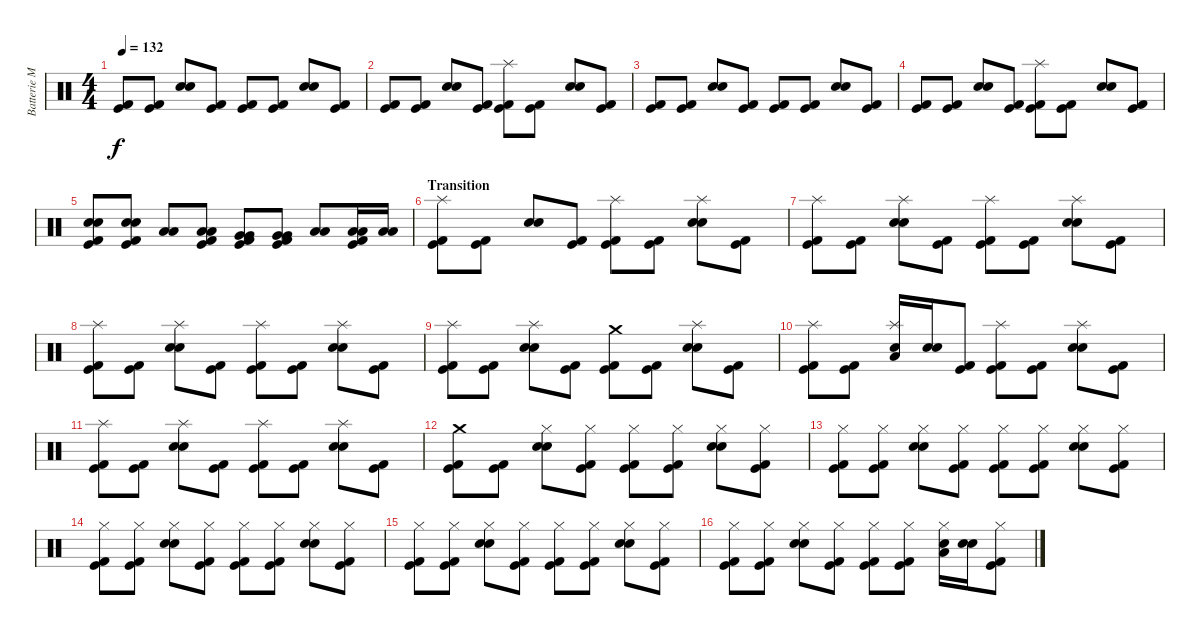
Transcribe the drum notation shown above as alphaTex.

\track ("Batterie Mat" "Batterie M") {instrument percussion}
\staff {score}
\articulation defaults
\ts (4 4)
\tempo 132
\clef neutral
\ks c
("Kick (hit) 2" "Kick (hit)").8{dy f} ("Kick (hit) 2" "Kick (hit)").8 ("Electric Snare (hit)" "Electric Snare (hit)").8 ("Kick (hit) 2" "Kick (hit)").8 ("Kick (hit) 2" "Kick (hit)").8 ("Kick (hit) 2" "Kick (hit)").8 ("Electric Snare (hit)" "Electric Snare (hit)").8 ("Kick (hit) 2" "Kick (hit)").8 |
("Kick (hit) 2" "Kick (hit)").8 ("Kick (hit) 2" "Kick (hit)").8 ("Electric Snare (hit)" "Electric Snare (hit)").8 ("Kick (hit) 2" "Kick (hit)").8 ("Splash (hit)" "Kick (hit) 2" "Kick (hit)").8 ("Kick (hit) 2" "Kick (hit)").8 ("Electric Snare (hit)" "Electric Snare (hit)").8 ("Kick (hit) 2" "Kick (hit)").8 |
("Kick (hit) 2" "Kick (hit)").8 ("Kick (hit) 2" "Kick (hit)").8 ("Electric Snare (hit)" "Electric Snare (hit)").8 ("Kick (hit) 2" "Kick (hit)").8 ("Kick (hit) 2" "Kick (hit)").8 ("Kick (hit) 2" "Kick (hit)").8 ("Electric Snare (hit)" "Electric Snare (hit)").8 ("Kick (hit) 2" "Kick (hit)").8 |
("Kick (hit) 2" "Kick (hit)").8 ("Kick (hit) 2" "Kick (hit)").8 ("Electric Snare (hit)" "Electric Snare (hit)").8 ("Kick (hit) 2" "Kick (hit)").8 ("Splash (hit)" "Kick (hit) 2" "Kick (hit)").8 ("Kick (hit) 2" "Kick (hit)").8 ("Electric Snare (hit)" "Electric Snare (hit)").8 ("Kick (hit) 2" "Kick (hit)").8 |
("Electric Snare (hit)" "Electric Snare (hit)" "Kick (hit) 2" "Kick (hit)").8 ("Electric Snare (hit)" "Electric Snare (hit)" "Kick (hit) 2" "Kick (hit)").8 ("Low Tom (hit)" "Low Tom (hit)").8 ("Low Tom (hit)" "Low Tom (hit)" "Kick (hit) 2" "Kick (hit)").8 ("Very Low Tom (hit)" "Very Low Tom (hit)" "Kick (hit) 2" "Kick (hit)").8 ("Very Low Tom (hit)" "Very Low Tom (hit)" "Kick (hit) 2" "Kick (hit)").8 ("Low Floor Tom (hit)" "Low Floor Tom (hit)").8 ("Low Floor Tom (hit)" "Low Floor Tom (hit)" "Kick (hit) 2" "Kick (hit)").16 ("Low Floor Tom (hit)" "Low Floor Tom (hit)").16 |
\section ("" "Transition")
("Splash (hit)" "Kick (hit) 2" "Kick (hit)").8 ("Kick (hit) 2" "Kick (hit)").8 ("Electric Snare (hit)" "Electric Snare (hit)").8 ("Kick (hit) 2" "Kick (hit)").8 ("Splash (hit)" "Kick (hit) 2" "Kick (hit)").8 ("Kick (hit) 2" "Kick (hit)").8 ("Splash (hit)" "Electric Snare (hit)" "Electric Snare (hit)").8 ("Kick (hit) 2" "Kick (hit)").8 |
("Splash (hit)" "Kick (hit) 2" "Kick (hit)").8 ("Kick (hit) 2" "Kick (hit)").8 ("Splash (hit)" "Electric Snare (hit)" "Electric Snare (hit)").8 ("Kick (hit) 2" "Kick (hit)").8 ("Splash (hit)" "Kick (hit) 2" "Kick (hit)").8 ("Kick (hit) 2" "Kick (hit)").8 ("Splash (hit)" "Electric Snare (hit)" "Electric Snare (hit)").8 ("Kick (hit) 2" "Kick (hit)").8 |
("Splash (hit)" "Kick (hit) 2" "Kick (hit)").8 ("Kick (hit) 2" "Kick (hit)").8 ("Splash (hit)" "Electric Snare (hit)" "Electric Snare (hit)").8 ("Kick (hit) 2" "Kick (hit)").8 ("Splash (hit)" "Kick (hit) 2" "Kick (hit)").8 ("Kick (hit) 2" "Kick (hit)").8 ("Splash (hit)" "Electric Snare (hit)" "Electric Snare (hit)").8 ("Kick (hit) 2" "Kick (hit)").8 |
("Splash (hit)" "Kick (hit) 2" "Kick (hit)").8 ("Kick (hit) 2" "Kick (hit)").8 ("Splash (hit)" "Electric Snare (hit)" "Electric Snare (hit)").8 ("Kick (hit) 2" "Kick (hit)").8 ("Crash medium (hit)" "Kick (hit) 2" "Kick (hit)").8 ("Kick (hit) 2" "Kick (hit)").8 ("Splash (hit)" "Electric Snare (hit)" "Electric Snare (hit)").8 ("Kick (hit) 2" "Kick (hit)").8 |
("Splash (hit)" "Kick (hit) 2" "Kick (hit)").8 ("Kick (hit) 2" "Kick (hit)").8 ("Splash (hit)" "Electric Snare (hit)" "Low Floor Tom (hit)").16 ("Electric Snare (hit)" "Electric Snare (hit)").16 ("Kick (hit) 2" "Kick (hit)").8 ("Splash (hit)" "Kick (hit) 2" "Kick (hit)").8 ("Kick (hit) 2" "Kick (hit)").8 ("Splash (hit)" "Electric Snare (hit)" "Electric Snare (hit)").8 ("Kick (hit) 2" "Kick (hit)").8 |
("Splash (hit)" "Kick (hit) 2" "Kick (hit)").8 ("Kick (hit) 2" "Kick (hit)").8 ("Splash (hit)" "Electric Snare (hit)" "Electric Snare (hit)").8 ("Kick (hit) 2" "Kick (hit)").8 ("Splash (hit)" "Kick (hit) 2" "Kick (hit)").8 ("Kick (hit) 2" "Kick (hit)").8 ("Splash (hit)" "Electric Snare (hit)" "Electric Snare (hit)").8 ("Kick (hit) 2" "Kick (hit)").8 |
("Crash medium (hit)" "Kick (hit) 2" "Kick (hit)").8 ("Kick (hit) 2" "Kick (hit)").8 ("Hi-Hat (closed)" "Electric Snare (hit)" "Electric Snare (hit)").8 ("Hi-Hat (closed)" "Kick (hit) 2" "Kick (hit)").8 ("Hi-Hat (closed)" "Kick (hit) 2" "Kick (hit)").8 ("Hi-Hat (closed)" "Kick (hit) 2" "Kick (hit)").8 ("Hi-Hat (closed)" "Electric Snare (hit)" "Electric Snare (hit)").8 ("Hi-Hat (closed)" "Kick (hit) 2" "Kick (hit)").8 |
("Hi-Hat (closed)" "Kick (hit) 2" "Kick (hit)").8 ("Hi-Hat (closed)" "Kick (hit) 2" "Kick (hit)").8 ("Hi-Hat (closed)" "Electric Snare (hit)" "Electric Snare (hit)").8 ("Hi-Hat (closed)" "Kick (hit) 2" "Kick (hit)").8 ("Hi-Hat (closed)" "Kick (hit) 2" "Kick (hit)").8 ("Hi-Hat (closed)" "Kick (hit) 2" "Kick (hit)").8 ("Hi-Hat (closed)" "Electric Snare (hit)" "Electric Snare (hit)").8 ("Hi-Hat (closed)" "Kick (hit) 2" "Kick (hit)").8 |
("Hi-Hat (closed)" "Kick (hit) 2" "Kick (hit)").8 ("Hi-Hat (closed)" "Kick (hit) 2" "Kick (hit)").8 ("Hi-Hat (closed)" "Electric Snare (hit)" "Electric Snare (hit)").8 ("Hi-Hat (closed)" "Kick (hit) 2" "Kick (hit)").8 ("Hi-Hat (closed)" "Kick (hit) 2" "Kick (hit)").8 ("Hi-Hat (closed)" "Kick (hit) 2" "Kick (hit)").8 ("Hi-Hat (closed)" "Electric Snare (hit)" "Electric Snare (hit)").8 ("Hi-Hat (closed)" "Kick (hit) 2" "Kick (hit)").8 |
("Hi-Hat (closed)" "Kick (hit) 2" "Kick (hit)").8 ("Hi-Hat (closed)" "Kick (hit) 2" "Kick (hit)").8 ("Hi-Hat (closed)" "Electric Snare (hit)" "Electric Snare (hit)").8 ("Hi-Hat (closed)" "Kick (hit) 2" "Kick (hit)").8 ("Hi-Hat (closed)" "Kick (hit) 2" "Kick (hit)").8 ("Hi-Hat (closed)" "Kick (hit) 2" "Kick (hit)").8 ("Hi-Hat (closed)" "Electric Snare (hit)" "Electric Snare (hit)").8 ("Hi-Hat (closed)" "Kick (hit) 2" "Kick (hit)").8 |
("Hi-Hat (closed)" "Kick (hit) 2" "Kick (hit)").8 ("Hi-Hat (closed)" "Kick (hit) 2" "Kick (hit)").8 ("Hi-Hat (closed)" "Electric Snare (hit)" "Electric Snare (hit)").8 ("Hi-Hat (closed)" "Kick (hit) 2" "Kick (hit)").8 ("Hi-Hat (closed)" "Kick (hit) 2" "Kick (hit)").8 ("Hi-Hat (closed)" "Kick (hit) 2" "Kick (hit)").8 ("Hi-Hat (closed)" "Low Floor Tom (hit)" "Electric Snare (hit)").16 ("Electric Snare (hit)" "Electric Snare (hit)").16 ("Hi-Hat (closed)" "Kick (hit) 2" "Kick (hit)").8
